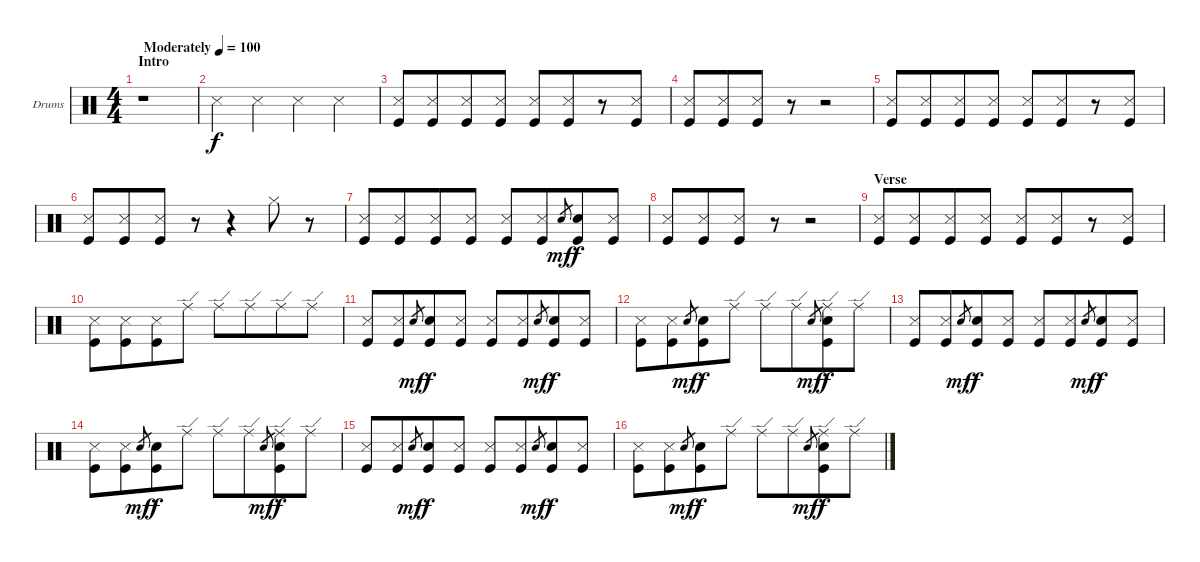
\defaultSystemsLayout 4
\bracketExtendMode groupsimilarinstruments
\firstSystemTrackNameOrientation horizontal
\otherSystemsTrackNameOrientation horizontal
\track ("Drumkit" "Drums") {instrument percussion}
\staff {score}
\articulation defaults
\ts (4 4)
\beaming (8 4 4)
\section ("" "Intro")
\tempo (100 "Moderately")
\clef neutral
\scale
1.05675
\ks c
r.1{dy f} |
\scale
0.943253 "Snare (side stick) 3".4 "Snare (side stick) 3".4 "Snare (side stick) 3".4 "Snare (side stick) 3".4 |
\scale
1.02648 ("Snare (side stick) 3" "Kick (hit)").8 ("Snare (side stick) 3" "Kick (hit)").8 ("Snare (side stick) 3" "Kick (hit)").8 ("Snare (side stick) 3" "Kick (hit)").8 ("Snare (side stick) 3" "Kick (hit)").8 ("Snare (side stick) 3" "Kick (hit)").8 r.8 ("Snare (side stick) 3" "Kick (hit)").8 |
\scale
0.973518 ("Snare (side stick) 3" "Kick (hit)").8 ("Snare (side stick) 3" "Kick (hit)").8 ("Snare (side stick) 3" "Kick (hit)").8 r.8 r.2 |
\scale
1.02648 ("Snare (side stick) 3" "Kick (hit)").8 ("Snare (side stick) 3" "Kick (hit)").8 ("Snare (side stick) 3" "Kick (hit)").8 ("Snare (side stick) 3" "Kick (hit)").8 ("Snare (side stick) 3" "Kick (hit)").8 ("Snare (side stick) 3" "Kick (hit)").8 r.8 ("Snare (side stick) 3" "Kick (hit)").8 |
\scale
0.973518 ("Snare (side stick) 3" "Kick (hit)").8 ("Snare (side stick) 3" "Kick (hit)").8 ("Snare (side stick) 3" "Kick (hit)").8 r.8 r.4 "Hi-Hat (closed)".8 r.8 |
\scale
1.02648 ("Snare (side stick) 3" "Kick (hit)").8 ("Snare (side stick) 3" "Kick (hit)").8 ("Snare (side stick) 3" "Kick (hit)").8 ("Snare (side stick) 3" "Kick (hit)").8 ("Snare (side stick) 3" "Kick (hit)").8 ("Snare (side stick) 3" "Kick (hit)").8 "Snare (hit) 2".8{gr dy mf} ("Snare (hit) 2" "Kick (hit)").8{dy f} ("Snare (side stick) 3" "Kick (hit)").8 |
\scale
0.973518 ("Snare (side stick) 3" "Kick (hit)").8 ("Snare (side stick) 3" "Kick (hit)").8 ("Snare (side stick) 3" "Kick (hit)").8 r.8 r.2 |
\section ("" "Verse")
\scale
1.02648 ("Snare (side stick) 3" "Kick (hit)").8 ("Snare (side stick) 3" "Kick (hit)").8 ("Snare (side stick) 3" "Kick (hit)").8 ("Snare (side stick) 3" "Kick (hit)").8 ("Snare (side stick) 3" "Kick (hit)").8 ("Snare (side stick) 3" "Kick (hit)").8 r.8 ("Snare (side stick) 3" "Kick (hit)").8 |
\scale
0.973518 ("Snare (side stick) 3" "Kick (hit)").8 ("Snare (side stick) 3" "Kick (hit)").8 ("Snare (side stick) 3" "Kick (hit)").8 "Ride (edge)".8 "Ride (edge)".8 "Ride (edge)".8 "Ride (edge)".8 "Ride (edge)".8 |
\scale
1.02648 ("Snare (side stick) 3" "Kick (hit)").8 ("Snare (side stick) 3" "Kick (hit)").8 "Snare (hit) 2".8{gr dy mf} ("Snare (hit) 2" "Kick (hit)").8{dy f} ("Snare (side stick) 3" "Kick (hit)").8 ("Snare (side stick) 3" "Kick (hit)").8 ("Snare (side stick) 3" "Kick (hit)").8 "Snare (hit) 2".8{gr dy mf} ("Snare (hit) 2" "Kick (hit)").8{dy f} ("Snare (side stick) 3" "Kick (hit)").8 |
\scale
0.973518 ("Snare (side stick) 3" "Kick (hit)").8 ("Snare (side stick) 3" "Kick (hit)").8 "Snare (hit) 2".8{gr dy mf} ("Snare (hit) 2" "Kick (hit)").8{dy f} "Ride (edge)".8 "Ride (edge)".8 "Ride (edge)".8 "Snare (hit) 2".8{gr dy mf} ("Ride (edge)" "Snare (hit) 2" "Kick (hit)").8{dy f} "Ride (edge)".8 |
\scale
1.02648 ("Snare (side stick) 3" "Kick (hit)").8 ("Snare (side stick) 3" "Kick (hit)").8 "Snare (hit) 2".8{gr dy mf} ("Snare (hit) 2" "Kick (hit)").8{dy f} ("Snare (side stick) 3" "Kick (hit)").8 ("Snare (side stick) 3" "Kick (hit)").8 ("Snare (side stick) 3" "Kick (hit)").8 "Snare (hit) 2".8{gr dy mf} ("Snare (hit) 2" "Kick (hit)").8{dy f} ("Snare (side stick) 3" "Kick (hit)").8 |
\scale
0.973518 ("Snare (side stick) 3" "Kick (hit)").8 ("Snare (side stick) 3" "Kick (hit)").8 "Snare (hit) 2".8{gr dy mf} ("Snare (hit) 2" "Kick (hit)").8{dy f} "Ride (edge)".8 "Ride (edge)".8 "Ride (edge)".8 "Snare (hit) 2".8{gr dy mf} ("Ride (edge)" "Snare (hit) 2" "Kick (hit)").8{dy f} "Ride (edge)".8 |
\scale
1.02648 ("Snare (side stick) 3" "Kick (hit)").8 ("Snare (side stick) 3" "Kick (hit)").8 "Snare (hit) 2".8{gr dy mf} ("Snare (hit) 2" "Kick (hit)").8{dy f} ("Snare (side stick) 3" "Kick (hit)").8 ("Snare (side stick) 3" "Kick (hit)").8 ("Snare (side stick) 3" "Kick (hit)").8 "Snare (hit) 2".8{gr dy mf} ("Snare (hit) 2" "Kick (hit)").8{dy f} ("Snare (side stick) 3" "Kick (hit)").8 |
\scale
0.973518 ("Snare (side stick) 3" "Kick (hit)").8 ("Snare (side stick) 3" "Kick (hit)").8 "Snare (hit) 2".8{gr dy mf} ("Snare (hit) 2" "Kick (hit)").8{dy f} "Ride (edge)".8 "Ride (edge)".8 "Ride (edge)".8 "Snare (hit) 2".8{gr dy mf} ("Ride (edge)" "Snare (hit) 2" "Kick (hit)").8{dy f} "Ride (edge)".8
